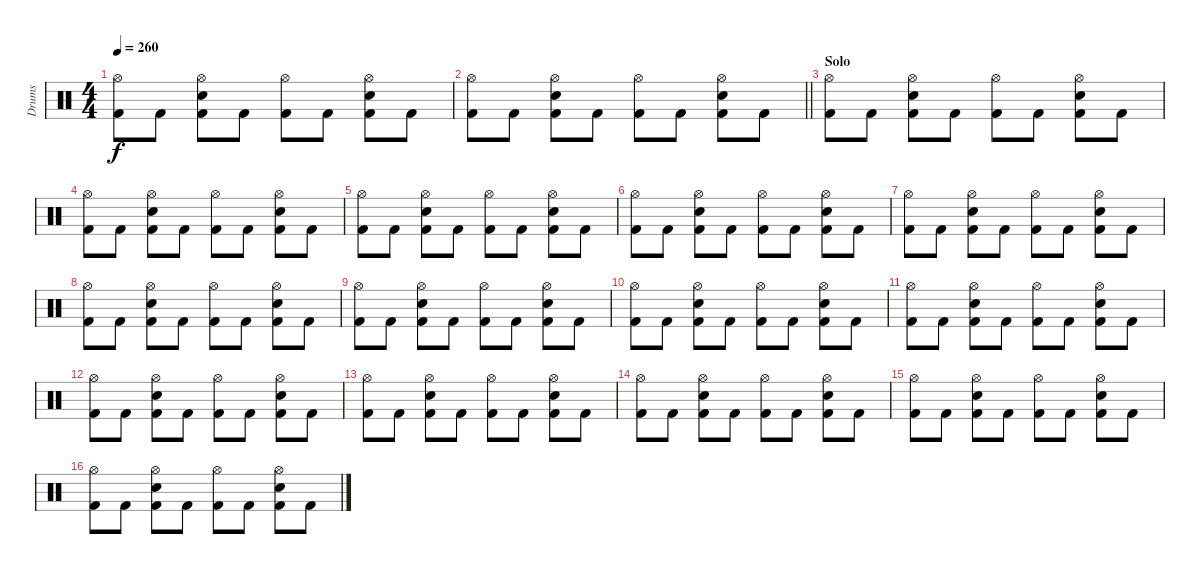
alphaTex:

\track ("Drums" "Drums") {instrument percussion}
\staff {score}
\articulation defaults
\ts (4 4)
\tempo 260
\clef neutral
\ks c
("Hi-Hat (open)" "Kick (hit) 2").8{dy f} "Kick (hit) 2".8 ("Hi-Hat (open)" "Snare (hit) 2" "Kick (hit) 2").8 "Kick (hit) 2".8 ("Hi-Hat (open)" "Kick (hit) 2").8 "Kick (hit) 2".8 ("Hi-Hat (open)" "Snare (hit) 2" "Kick (hit) 2").8 "Kick (hit) 2".8 |
\barLineRight lightlight
("Hi-Hat (open)" "Kick (hit) 2").8 "Kick (hit) 2".8 ("Hi-Hat (open)" "Snare (hit) 2" "Kick (hit) 2").8 "Kick (hit) 2".8 ("Hi-Hat (open)" "Kick (hit) 2").8 "Kick (hit) 2".8 ("Hi-Hat (open)" "Snare (hit) 2" "Kick (hit) 2").8 "Kick (hit) 2".8 |
\section ("" "Solo")
("Hi-Hat (open)" "Kick (hit) 2").8 "Kick (hit) 2".8 ("Hi-Hat (open)" "Snare (hit) 2" "Kick (hit) 2").8 "Kick (hit) 2".8 ("Hi-Hat (open)" "Kick (hit) 2").8 "Kick (hit) 2".8 ("Hi-Hat (open)" "Snare (hit) 2" "Kick (hit) 2").8 "Kick (hit) 2".8 |
("Hi-Hat (open)" "Kick (hit) 2").8 "Kick (hit) 2".8 ("Hi-Hat (open)" "Snare (hit) 2" "Kick (hit) 2").8 "Kick (hit) 2".8 ("Hi-Hat (open)" "Kick (hit) 2").8 "Kick (hit) 2".8 ("Hi-Hat (open)" "Snare (hit) 2" "Kick (hit) 2").8 "Kick (hit) 2".8 |
("Hi-Hat (open)" "Kick (hit) 2").8 "Kick (hit) 2".8 ("Hi-Hat (open)" "Snare (hit) 2" "Kick (hit) 2").8 "Kick (hit) 2".8 ("Hi-Hat (open)" "Kick (hit) 2").8 "Kick (hit) 2".8 ("Hi-Hat (open)" "Snare (hit) 2" "Kick (hit) 2").8 "Kick (hit) 2".8 |
("Hi-Hat (open)" "Kick (hit) 2").8 "Kick (hit) 2".8 ("Hi-Hat (open)" "Snare (hit) 2" "Kick (hit) 2").8 "Kick (hit) 2".8 ("Hi-Hat (open)" "Kick (hit) 2").8 "Kick (hit) 2".8 ("Hi-Hat (open)" "Snare (hit) 2" "Kick (hit) 2").8 "Kick (hit) 2".8 |
("Hi-Hat (open)" "Kick (hit) 2").8 "Kick (hit) 2".8 ("Hi-Hat (open)" "Snare (hit) 2" "Kick (hit) 2").8 "Kick (hit) 2".8 ("Hi-Hat (open)" "Kick (hit) 2").8 "Kick (hit) 2".8 ("Hi-Hat (open)" "Snare (hit) 2" "Kick (hit) 2").8 "Kick (hit) 2".8 |
("Hi-Hat (open)" "Kick (hit) 2").8 "Kick (hit) 2".8 ("Hi-Hat (open)" "Snare (hit) 2" "Kick (hit) 2").8 "Kick (hit) 2".8 ("Hi-Hat (open)" "Kick (hit) 2").8 "Kick (hit) 2".8 ("Hi-Hat (open)" "Snare (hit) 2" "Kick (hit) 2").8 "Kick (hit) 2".8 |
("Hi-Hat (open)" "Kick (hit) 2").8 "Kick (hit) 2".8 ("Hi-Hat (open)" "Snare (hit) 2" "Kick (hit) 2").8 "Kick (hit) 2".8 ("Hi-Hat (open)" "Kick (hit) 2").8 "Kick (hit) 2".8 ("Hi-Hat (open)" "Snare (hit) 2" "Kick (hit) 2").8 "Kick (hit) 2".8 |
("Hi-Hat (open)" "Kick (hit) 2").8 "Kick (hit) 2".8 ("Hi-Hat (open)" "Snare (hit) 2" "Kick (hit) 2").8 "Kick (hit) 2".8 ("Hi-Hat (open)" "Kick (hit) 2").8 "Kick (hit) 2".8 ("Hi-Hat (open)" "Snare (hit) 2" "Kick (hit) 2").8 "Kick (hit) 2".8 |
("Hi-Hat (open)" "Kick (hit) 2").8 "Kick (hit) 2".8 ("Hi-Hat (open)" "Snare (hit) 2" "Kick (hit) 2").8 "Kick (hit) 2".8 ("Hi-Hat (open)" "Kick (hit) 2").8 "Kick (hit) 2".8 ("Hi-Hat (open)" "Snare (hit) 2" "Kick (hit) 2").8 "Kick (hit) 2".8 |
("Hi-Hat (open)" "Kick (hit) 2").8 "Kick (hit) 2".8 ("Hi-Hat (open)" "Snare (hit) 2" "Kick (hit) 2").8 "Kick (hit) 2".8 ("Hi-Hat (open)" "Kick (hit) 2").8 "Kick (hit) 2".8 ("Hi-Hat (open)" "Snare (hit) 2" "Kick (hit) 2").8 "Kick (hit) 2".8 |
("Hi-Hat (open)" "Kick (hit) 2").8 "Kick (hit) 2".8 ("Hi-Hat (open)" "Snare (hit) 2" "Kick (hit) 2").8 "Kick (hit) 2".8 ("Hi-Hat (open)" "Kick (hit) 2").8 "Kick (hit) 2".8 ("Hi-Hat (open)" "Snare (hit) 2" "Kick (hit) 2").8 "Kick (hit) 2".8 |
("Hi-Hat (open)" "Kick (hit) 2").8 "Kick (hit) 2".8 ("Hi-Hat (open)" "Snare (hit) 2" "Kick (hit) 2").8 "Kick (hit) 2".8 ("Hi-Hat (open)" "Kick (hit) 2").8 "Kick (hit) 2".8 ("Hi-Hat (open)" "Snare (hit) 2" "Kick (hit) 2").8 "Kick (hit) 2".8 |
("Hi-Hat (open)" "Kick (hit) 2").8 "Kick (hit) 2".8 ("Hi-Hat (open)" "Snare (hit) 2" "Kick (hit) 2").8 "Kick (hit) 2".8 ("Hi-Hat (open)" "Kick (hit) 2").8 "Kick (hit) 2".8 ("Hi-Hat (open)" "Snare (hit) 2" "Kick (hit) 2").8 "Kick (hit) 2".8 |
("Hi-Hat (open)" "Kick (hit) 2").8 "Kick (hit) 2".8 ("Hi-Hat (open)" "Snare (hit) 2" "Kick (hit) 2").8 "Kick (hit) 2".8 ("Hi-Hat (open)" "Kick (hit) 2").8 "Kick (hit) 2".8 ("Hi-Hat (open)" "Snare (hit) 2" "Kick (hit) 2").8 "Kick (hit) 2".8
